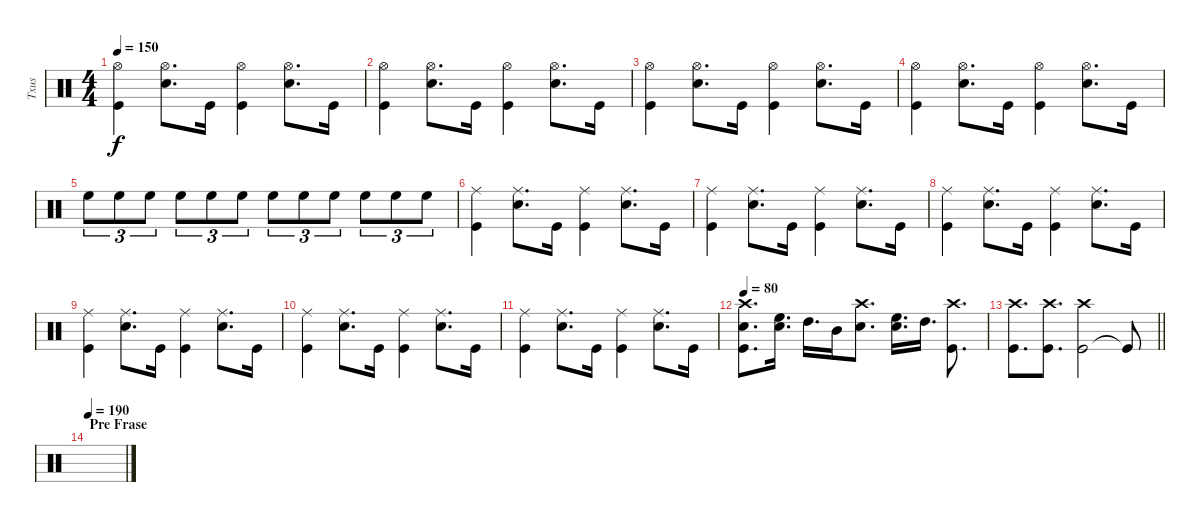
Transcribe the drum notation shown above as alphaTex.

\track ("Txus" "Txus") {instrument percussion}
\staff {score}
\articulation defaults
\ts (4 4)
\tempo 150
\clef neutral
\ks c
("Kick (hit)" "Hi-Hat (open)").4{dy f} ("Snare (hit) 2" "Hi-Hat (open)").8{d} "Kick (hit)".16 ("Kick (hit)" "Hi-Hat (open)").4 ("Snare (hit) 2" "Hi-Hat (open)").8{d} "Kick (hit)".16 |
("Kick (hit)" "Hi-Hat (open)").4 ("Snare (hit) 2" "Hi-Hat (open)").8{d} "Kick (hit)".16 ("Kick (hit)" "Hi-Hat (open)").4 ("Snare (hit) 2" "Hi-Hat (open)").8{d} "Kick (hit)".16 |
("Kick (hit)" "Hi-Hat (open)").4 ("Snare (hit) 2" "Hi-Hat (open)").8{d} "Kick (hit)".16 ("Kick (hit)" "Hi-Hat (open)").4 ("Snare (hit) 2" "Hi-Hat (open)").8{d} "Kick (hit)".16 |
("Kick (hit)" "Hi-Hat (open)").4 ("Snare (hit) 2" "Hi-Hat (open)").8{d} "Kick (hit)".16 ("Kick (hit)" "Hi-Hat (open)").4 ("Snare (hit) 2" "Hi-Hat (open)").8{d} "Kick (hit)".16 |
"High Floor Tom (hit)".8{tu (3 2)} "High Floor Tom (hit)".8{tu (3 2)} "High Floor Tom (hit)".8{tu (3 2)} "High Floor Tom (hit)".8{tu (3 2)} "High Floor Tom (hit)".8{tu (3 2)} "High Floor Tom (hit)".8{tu (3 2)} "High Floor Tom (hit)".8{tu (3 2)} "High Floor Tom (hit)".8{tu (3 2)} "High Floor Tom (hit)".8{tu (3 2)} "High Floor Tom (hit)".8{tu (3 2)} "High Floor Tom (hit)".8{tu (3 2)} "High Floor Tom (hit)".8{tu (3 2)} |
("Kick (hit)" "Ride (middle)").4 ("Snare (hit) 2" "Ride (middle)").8{d} "Kick (hit)".16 ("Kick (hit)" "Ride (middle)").4 ("Snare (hit) 2" "Ride (middle)").8{d} "Kick (hit)".16 |
("Kick (hit)" "Ride (middle)").4 ("Snare (hit) 2" "Ride (middle)").8{d} "Kick (hit)".16 ("Kick (hit)" "Ride (middle)").4 ("Snare (hit) 2" "Ride (middle)").8{d} "Kick (hit)".16 |
("Kick (hit)" "Ride (middle)").4 ("Snare (hit) 2" "Ride (middle)").8{d} "Kick (hit)".16 ("Kick (hit)" "Ride (middle)").4 ("Snare (hit) 2" "Ride (middle)").8{d} "Kick (hit)".16 |
("Kick (hit)" "Ride (middle)").4 ("Snare (hit) 2" "Ride (middle)").8{d} "Kick (hit)".16 ("Kick (hit)" "Ride (middle)").4 ("Snare (hit) 2" "Ride (middle)").8{d} "Kick (hit)".16 |
("Kick (hit)" "Ride (middle)").4 ("Snare (hit) 2" "Ride (middle)").8{d} "Kick (hit)".16 ("Kick (hit)" "Ride (middle)").4 ("Snare (hit) 2" "Ride (middle)").8{d} "Kick (hit)".16 |
("Kick (hit)" "Ride (middle)").4 ("Snare (hit) 2" "Ride (middle)").8{d} "Kick (hit)".16 ("Kick (hit)" "Ride (middle)").4 ("Snare (hit) 2" "Ride (middle)").8{d} "Kick (hit)".16 |
\tempo 80
("Snare (hit) 2" "Crash high (hit)" "Kick (hit)").8{d} ("High Floor Tom (hit)" "Snare (hit) 2").16{d} "High Tom (hit)".16{d} "Mid Tom (hit)".16 ("Snare (hit) 2" "Crash high (hit)").8{d} ("High Floor Tom (hit)" "Snare (hit) 2").16{d} "High Tom (hit)".16{d} ("Kick (hit)" "Crash high (hit)").8{d} |
\barLineRight lightlight
("Kick (hit)" "Crash high (hit)").8{d} ("Kick (hit)" "Crash high (hit)").8{d} ("Kick (hit)" "Crash high (hit)").2 "Kick (hit)"{t}.8 |
\section ("" "Pre Frase")
\tempo 190
